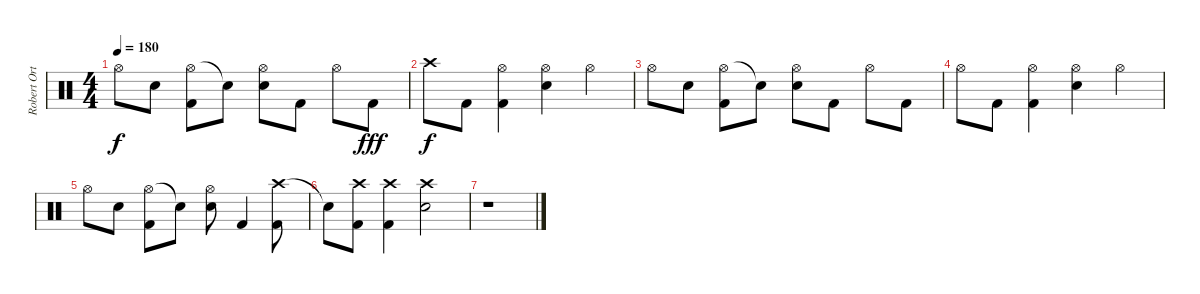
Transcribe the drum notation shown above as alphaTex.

\track ("Robert Ortiz [Drums]" "Robert Ort") {instrument percussion}
\staff {score}
\articulation defaults
\ts (4 4)
\tempo 180
\clef neutral
\ks c "Hi-Hat (open)".8{dy f} "Electric Snare (hit)".8
("Hi-Hat (open)" "Kick (hit) 2").8 "Snare (hit)"{t}.8 ("Hi-Hat (open)" "Electric Snare (hit)").8 "Kick (hit) 2".8 "Hi-Hat (open)".8 "Kick (hit) 2".8{dy fff} |
"Crash high (hit)".8{dy f} "Kick (hit) 2".8 ("Hi-Hat (open)" "Kick (hit) 2").4 ("Hi-Hat (open)" "Electric Snare (hit)").4 "Hi-Hat (open)".4 |
"Hi-Hat (open)".8 "Electric Snare (hit)".8 ("Hi-Hat (open)" "Kick (hit) 2").8 "Snare (hit)"{t}.8 ("Hi-Hat (open)" "Electric Snare (hit)").8 "Kick (hit) 2".8 "Hi-Hat (open)".8 "Kick (hit) 2".8 |
"Hi-Hat (open)".8 "Kick (hit) 2".8 ("Hi-Hat (open)" "Kick (hit) 2").4 ("Hi-Hat (open)" "Electric Snare (hit)").4 "Hi-Hat (open)".4 |
"Hi-Hat (open)".8 "Electric Snare (hit)".8 ("Hi-Hat (open)" "Kick (hit) 2").8 "Snare (hit)"{t}.8 ("Hi-Hat (open)" "Electric Snare (hit)").8 "Kick (hit) 2".4 ("Crash high (hit)" "Kick (hit) 2").8 |
"Snare (hit)"{t}.8 ("Crash high (hit)" "Kick (hit) 2").8 ("Crash high (hit)" "Kick (hit) 2").4 ("Crash high (hit)" "Electric Snare (hit)").2 |
r.1
